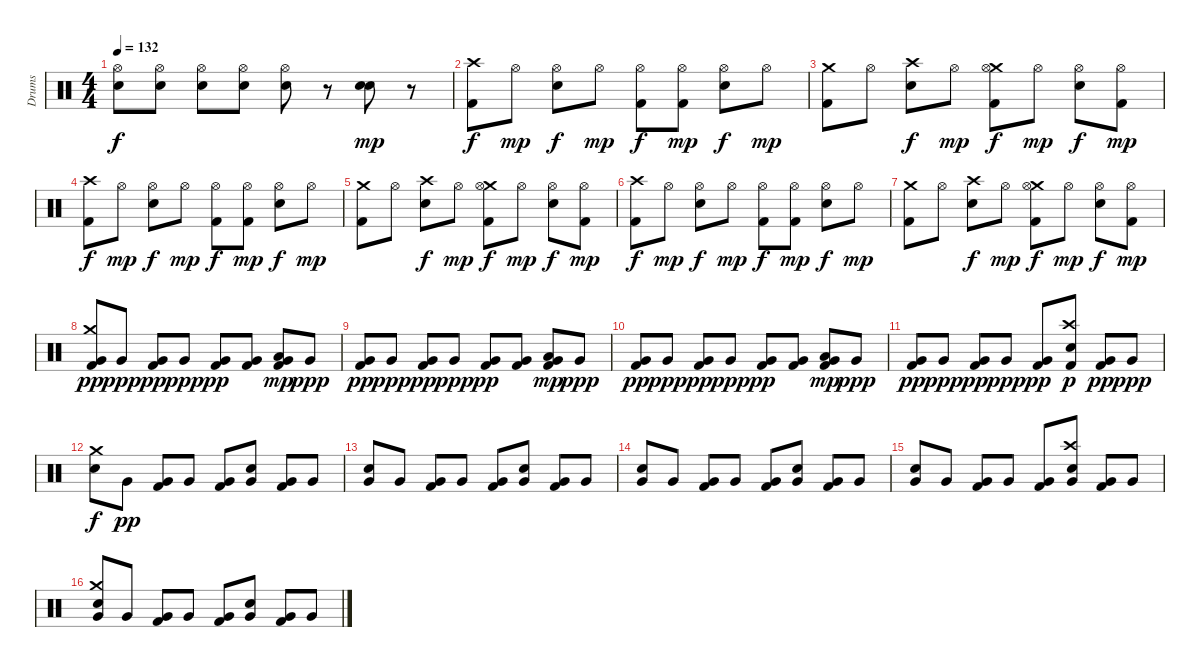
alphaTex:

\track ("Drums" "Drums") {instrument percussion}
\staff {score}
\articulation defaults
\ts (4 4)
\tempo 132
\clef neutral
\ks c
("Hi-Hat (open)" "Electric Snare (hit)").8{dy f} ("Hi-Hat (open)" "Electric Snare (hit)").8 ("Hi-Hat (open)" "Electric Snare (hit)").8 ("Hi-Hat (open)" "Electric Snare (hit)").8 ("Hi-Hat (open)" "Electric Snare (hit)").8 r.8 ("Electric Snare (hit)" "Snare (hit) 2").8{dy mp} r.8 |
("Crash high (hit)" "Kick (hit) 2").8{dy f} "Hi-Hat (open)".8{dy mp} ("Hi-Hat (open)" "Electric Snare (hit)").8{dy f} "Hi-Hat (open)".8{dy mp} ("Hi-Hat (open)" "Kick (hit) 2").8{dy f} ("Kick (hit) 2" "Hi-Hat (open)").8{dy mp} ("Hi-Hat (open)" "Electric Snare (hit)").8{dy f} "Hi-Hat (open)".8{dy mp} |
("Crash medium (hit)" "Kick (hit) 2").8 "Hi-Hat (open)".8 ("Crash high (hit)" "Electric Snare (hit)").8{dy f} "Hi-Hat (open)".8{dy mp} ("Crash medium (hit)" "Hi-Hat (open)" "Kick (hit) 2").8{dy f} "Hi-Hat (open)".8{dy mp} ("Hi-Hat (open)" "Electric Snare (hit)").8{dy f} ("Hi-Hat (open)" "Kick (hit) 2").8{dy mp} |
("Crash high (hit)" "Kick (hit) 2").8{dy f} "Hi-Hat (open)".8{dy mp} ("Hi-Hat (open)" "Electric Snare (hit)").8{dy f} "Hi-Hat (open)".8{dy mp} ("Hi-Hat (open)" "Kick (hit) 2").8{dy f} ("Kick (hit) 2" "Hi-Hat (open)").8{dy mp} ("Hi-Hat (open)" "Electric Snare (hit)").8{dy f} "Hi-Hat (open)".8{dy mp} |
("Crash medium (hit)" "Kick (hit) 2").8 "Hi-Hat (open)".8 ("Crash high (hit)" "Electric Snare (hit)").8{dy f} "Hi-Hat (open)".8{dy mp} ("Crash medium (hit)" "Hi-Hat (open)" "Kick (hit) 2").8{dy f} "Hi-Hat (open)".8{dy mp} ("Hi-Hat (open)" "Electric Snare (hit)").8{dy f} ("Hi-Hat (open)" "Kick (hit) 2").8{dy mp} |
("Crash high (hit)" "Kick (hit) 2").8{dy f} "Hi-Hat (open)".8{dy mp} ("Hi-Hat (open)" "Electric Snare (hit)").8{dy f} "Hi-Hat (open)".8{dy mp} ("Hi-Hat (open)" "Kick (hit) 2").8{dy f} ("Kick (hit) 2" "Hi-Hat (open)").8{dy mp} ("Hi-Hat (open)" "Electric Snare (hit)").8{dy f} "Hi-Hat (open)".8{dy mp} |
("Crash medium (hit)" "Kick (hit) 2").8 "Hi-Hat (open)".8 ("Crash high (hit)" "Electric Snare (hit)").8{dy f} "Hi-Hat (open)".8{dy mp} ("Crash medium (hit)" "Hi-Hat (open)" "Kick (hit) 2").8{dy f} "Hi-Hat (open)".8{dy mp} ("Hi-Hat (open)" "Electric Snare (hit)").8{dy f} ("Hi-Hat (open)" "Kick (hit) 2").8{dy mp} |
("Crash medium (hit)" "Kick (hit) 2" "Very Low Tom (hit)").8{dy pp} "Very Low Tom (hit)".8{dy ppp} ("Very Low Tom (hit)" "Kick (hit) 2").8{dy pp} "Very Low Tom (hit)".8{dy ppp} ("Very Low Tom (hit)" "Kick (hit) 2").8{dy pp} ("Kick (hit) 2" "Very Low Tom (hit)").8 ("Low Floor Tom (hit)" "Very Low Tom (hit)" "Kick (hit) 2").8{dy mp} "Very Low Tom (hit)".8{dy ppp} |
("Very Low Tom (hit)" "Kick (hit) 2").8{dy pp} "Very Low Tom (hit)".8{dy ppp} ("Very Low Tom (hit)" "Kick (hit) 2").8{dy pp} "Very Low Tom (hit)".8{dy ppp} ("Very Low Tom (hit)" "Kick (hit) 2").8{dy pp} ("Kick (hit) 2" "Very Low Tom (hit)").8 ("Low Floor Tom (hit)" "Very Low Tom (hit)" "Kick (hit) 2").8{dy mp} "Very Low Tom (hit)".8{dy ppp} |
("Very Low Tom (hit)" "Kick (hit) 2").8{dy pp} "Very Low Tom (hit)".8{dy ppp} ("Very Low Tom (hit)" "Kick (hit) 2").8{dy pp} "Very Low Tom (hit)".8{dy ppp} ("Very Low Tom (hit)" "Kick (hit) 2").8{dy pp} ("Kick (hit) 2" "Very Low Tom (hit)").8 ("Low Floor Tom (hit)" "Very Low Tom (hit)" "Kick (hit) 2").8{dy mp} "Very Low Tom (hit)".8{dy ppp} |
("Very Low Tom (hit)" "Kick (hit) 2").8{dy pp} "Very Low Tom (hit)".8{dy ppp} ("Very Low Tom (hit)" "Kick (hit) 2").8{dy pp} "Very Low Tom (hit)".8{dy ppp} ("Very Low Tom (hit)" "Kick (hit) 2").8{dy pp} ("Crash high (hit)" "Electric Snare (hit)" "Kick (hit) 2").8{dy p} ("Very Low Tom (hit)" "Kick (hit) 2").8{dy pp} "Very Low Tom (hit)".8{dy ppp} |
("Crash medium (hit)" "Electric Snare (hit)").8{dy f} "Very Low Tom (hit)".8{dy pp} ("Very Low Tom (hit)" "Kick (hit) 2").8 "Very Low Tom (hit)".8 ("Very Low Tom (hit)" "Kick (hit) 2").8 ("Very Low Tom (hit)" "Electric Snare (hit)").8 ("Very Low Tom (hit)" "Kick (hit) 2").8 "Very Low Tom (hit)".8 |
("Very Low Tom (hit)" "Electric Snare (hit)").8 "Very Low Tom (hit)".8 ("Very Low Tom (hit)" "Kick (hit) 2").8 "Very Low Tom (hit)".8 ("Very Low Tom (hit)" "Kick (hit) 2").8 ("Very Low Tom (hit)" "Electric Snare (hit)").8 ("Very Low Tom (hit)" "Kick (hit) 2").8 "Very Low Tom (hit)".8 |
("Very Low Tom (hit)" "Electric Snare (hit)").8 "Very Low Tom (hit)".8 ("Very Low Tom (hit)" "Kick (hit) 2").8 "Very Low Tom (hit)".8 ("Very Low Tom (hit)" "Kick (hit) 2").8 ("Very Low Tom (hit)" "Electric Snare (hit)").8 ("Very Low Tom (hit)" "Kick (hit) 2").8 "Very Low Tom (hit)".8 |
("Very Low Tom (hit)" "Electric Snare (hit)").8 "Very Low Tom (hit)".8 ("Very Low Tom (hit)" "Kick (hit) 2").8 "Very Low Tom (hit)".8 ("Very Low Tom (hit)" "Kick (hit) 2").8 ("Crash high (hit)" "Very Low Tom (hit)" "Electric Snare (hit)").8 ("Very Low Tom (hit)" "Kick (hit) 2").8 "Very Low Tom (hit)".8 |
("Crash medium (hit)" "Very Low Tom (hit)" "Electric Snare (hit)").8 "Very Low Tom (hit)".8 ("Very Low Tom (hit)" "Kick (hit) 2").8 "Very Low Tom (hit)".8 ("Very Low Tom (hit)" "Kick (hit) 2").8 ("Very Low Tom (hit)" "Electric Snare (hit)").8 ("Very Low Tom (hit)" "Kick (hit) 2").8 "Very Low Tom (hit)".8
